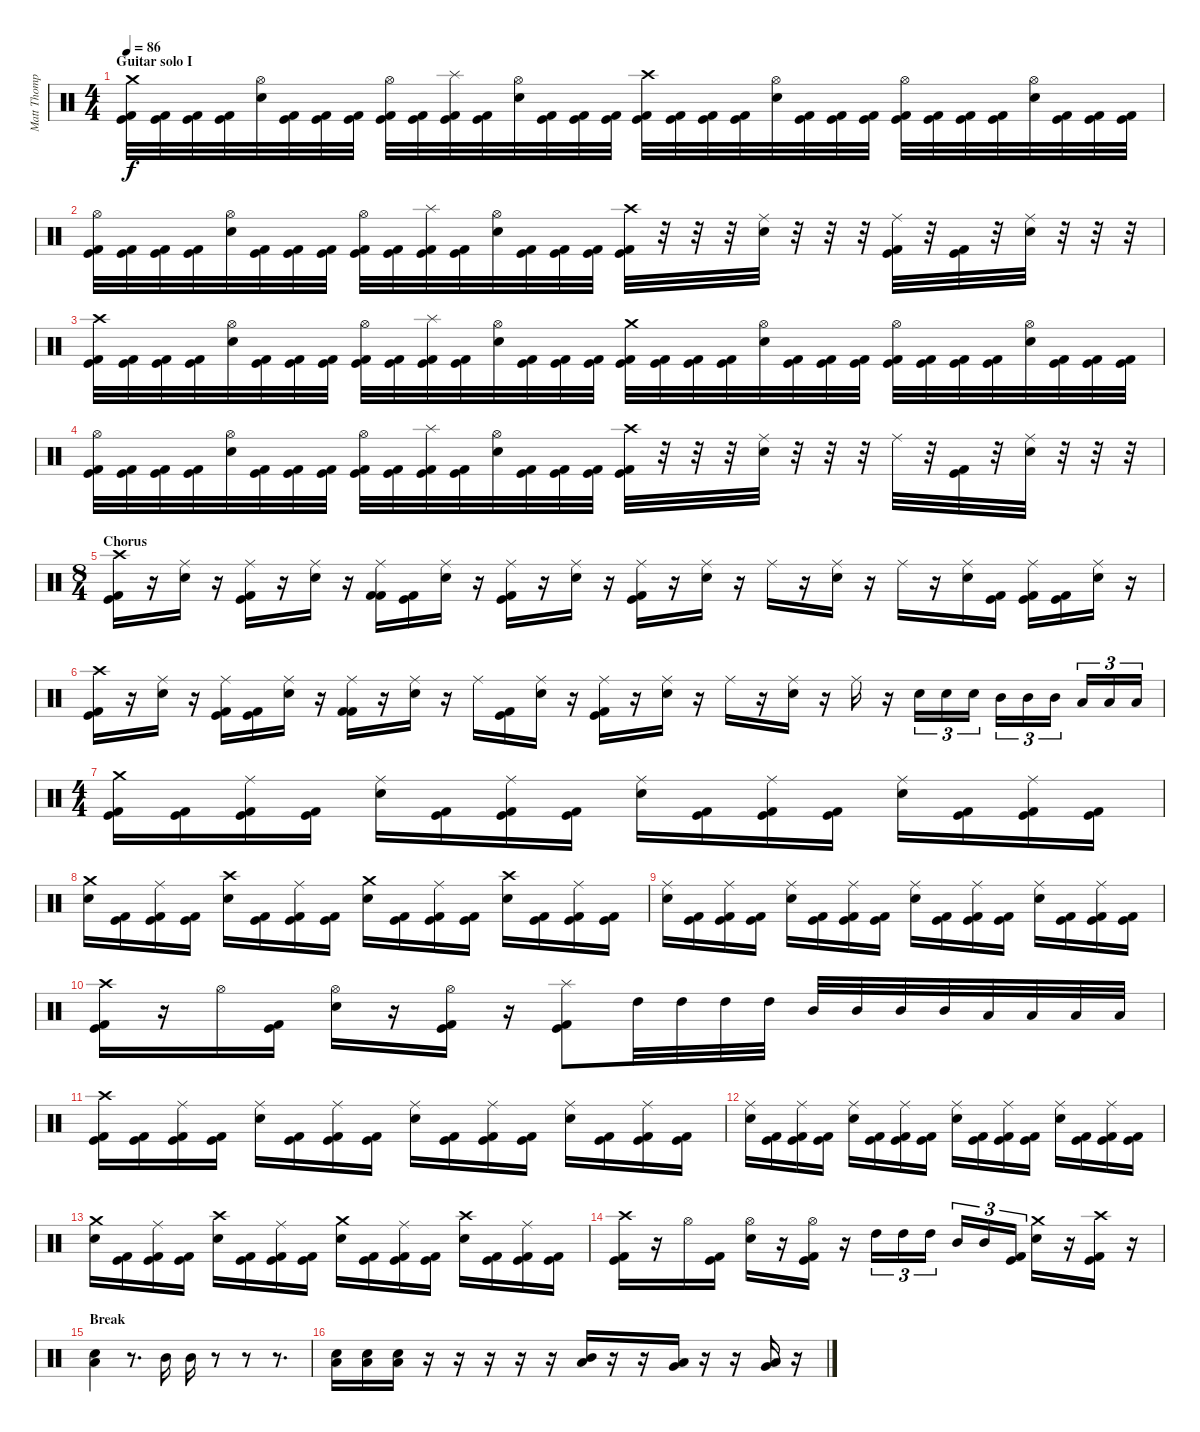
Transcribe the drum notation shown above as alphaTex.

\track ("Matt Thompson" "Matt Thomp") {instrument percussion}
\staff {score}
\articulation defaults
\ts (4 4)
\section ("" "Guitar solo I")
\tempo 86
\clef neutral
\ks c
("Crash medium (hit)" "Kick (hit)" "Kick (hit) 2").32{dy f} ("Kick (hit)" "Kick (hit) 2").32 ("Kick (hit)" "Kick (hit) 2").32 ("Kick (hit)" "Kick (hit) 2").32 ("Hi-Hat (open)" "Snare (hit) 2").32 ("Kick (hit)" "Kick (hit) 2").32 ("Kick (hit)" "Kick (hit) 2").32 ("Kick (hit)" "Kick (hit) 2").32 ("Hi-Hat (open)" "Kick (hit)" "Kick (hit) 2").32 ("Kick (hit)" "Kick (hit) 2").32 ("Splash (hit)" "Kick (hit)" "Kick (hit) 2").32 ("Kick (hit)" "Kick (hit) 2").32 ("Hi-Hat (open)" "Snare (hit) 2").32 ("Kick (hit)" "Kick (hit) 2").32 ("Kick (hit)" "Kick (hit) 2").32 ("Kick (hit)" "Kick (hit) 2").32 ("Crash high (hit)" "Kick (hit)" "Kick (hit) 2").32 ("Kick (hit)" "Kick (hit) 2").32 ("Kick (hit)" "Kick (hit) 2").32 ("Kick (hit)" "Kick (hit) 2").32 ("Hi-Hat (open)" "Snare (hit) 2").32 ("Kick (hit)" "Kick (hit) 2").32 ("Kick (hit)" "Kick (hit) 2").32 ("Kick (hit)" "Kick (hit) 2").32 ("Hi-Hat (open)" "Kick (hit)" "Kick (hit) 2").32 ("Kick (hit)" "Kick (hit) 2").32 ("Kick (hit)" "Kick (hit) 2").32 ("Kick (hit)" "Kick (hit) 2").32 ("Hi-Hat (open)" "Snare (hit) 2").32 ("Kick (hit)" "Kick (hit) 2").32 ("Kick (hit)" "Kick (hit) 2").32 ("Kick (hit)" "Kick (hit) 2").32 |
("Hi-Hat (open)" "Kick (hit)" "Kick (hit) 2").32 ("Kick (hit)" "Kick (hit) 2").32 ("Kick (hit)" "Kick (hit) 2").32 ("Kick (hit)" "Kick (hit) 2").32 ("Hi-Hat (open)" "Snare (hit) 2").32 ("Kick (hit)" "Kick (hit) 2").32 ("Kick (hit)" "Kick (hit) 2").32 ("Kick (hit)" "Kick (hit) 2").32 ("Hi-Hat (open)" "Kick (hit)" "Kick (hit) 2").32 ("Kick (hit)" "Kick (hit) 2").32 ("Splash (hit)" "Kick (hit)" "Kick (hit) 2").32 ("Kick (hit)" "Kick (hit) 2").32 ("Hi-Hat (open)" "Snare (hit) 2").32 ("Kick (hit)" "Kick (hit) 2").32 ("Kick (hit)" "Kick (hit) 2").32 ("Kick (hit)" "Kick (hit) 2").32 ("Crash high (hit)" "Kick (hit)" "Kick (hit) 2").32 r.32 r.32 r.32 ("Ride (middle)" "Snare (hit) 2").32 r.32 r.32 r.32 ("Ride (middle)" "Kick (hit)" "Kick (hit) 2").32 r.32 ("Kick (hit)" "Kick (hit) 2").32 r.32 ("Ride (middle)" "Snare (hit) 2").32 r.32 r.32 r.32 |
("Crash high (hit)" "Kick (hit)" "Kick (hit) 2").32 ("Kick (hit)" "Kick (hit) 2").32 ("Kick (hit)" "Kick (hit) 2").32 ("Kick (hit)" "Kick (hit) 2").32 ("Hi-Hat (open)" "Snare (hit) 2").32 ("Kick (hit)" "Kick (hit) 2").32 ("Kick (hit)" "Kick (hit) 2").32 ("Kick (hit)" "Kick (hit) 2").32 ("Hi-Hat (open)" "Kick (hit)" "Kick (hit) 2").32 ("Kick (hit)" "Kick (hit) 2").32 ("Splash (hit)" "Kick (hit)" "Kick (hit) 2").32 ("Kick (hit)" "Kick (hit) 2").32 ("Hi-Hat (open)" "Snare (hit) 2").32 ("Kick (hit)" "Kick (hit) 2").32 ("Kick (hit)" "Kick (hit) 2").32 ("Kick (hit)" "Kick (hit) 2").32 ("Crash medium (hit)" "Kick (hit)" "Kick (hit) 2").32 ("Kick (hit)" "Kick (hit) 2").32 ("Kick (hit)" "Kick (hit) 2").32 ("Kick (hit)" "Kick (hit) 2").32 ("Hi-Hat (open)" "Snare (hit) 2").32 ("Kick (hit)" "Kick (hit) 2").32 ("Kick (hit)" "Kick (hit) 2").32 ("Kick (hit)" "Kick (hit) 2").32 ("Hi-Hat (open)" "Kick (hit)" "Kick (hit) 2").32 ("Kick (hit)" "Kick (hit) 2").32 ("Kick (hit)" "Kick (hit) 2").32 ("Kick (hit)" "Kick (hit) 2").32 ("Hi-Hat (open)" "Snare (hit) 2").32 ("Kick (hit)" "Kick (hit) 2").32 ("Kick (hit)" "Kick (hit) 2").32 ("Kick (hit)" "Kick (hit) 2").32 |
("Hi-Hat (open)" "Kick (hit)" "Kick (hit) 2").32 ("Kick (hit)" "Kick (hit) 2").32 ("Kick (hit)" "Kick (hit) 2").32 ("Kick (hit)" "Kick (hit) 2").32 ("Hi-Hat (open)" "Snare (hit) 2").32 ("Kick (hit)" "Kick (hit) 2").32 ("Kick (hit)" "Kick (hit) 2").32 ("Kick (hit)" "Kick (hit) 2").32 ("Hi-Hat (open)" "Kick (hit)" "Kick (hit) 2").32 ("Kick (hit)" "Kick (hit) 2").32 ("Splash (hit)" "Kick (hit)" "Kick (hit) 2").32 ("Kick (hit)" "Kick (hit) 2").32 ("Hi-Hat (open)" "Snare (hit) 2").32 ("Kick (hit)" "Kick (hit) 2").32 ("Kick (hit)" "Kick (hit) 2").32 ("Kick (hit)" "Kick (hit) 2").32 ("Crash high (hit)" "Kick (hit)" "Kick (hit) 2").32 r.32 r.32 r.32 ("Ride (middle)" "Snare (hit) 2").32 r.32 r.32 r.32 "Ride (middle)".32 r.32 ("Kick (hit)" "Kick (hit) 2").32 r.32 ("Ride (middle)" "Snare (hit) 2").32 r.32 r.32 r.32 |
\ts (8 4)
\section ("" "Chorus")
("Crash high (hit)" "Kick (hit)" "Kick (hit) 2").16 r.16 ("Ride (middle)" "Snare (hit) 2").16 r.16 ("Ride (middle)" "Kick (hit)" "Kick (hit) 2").16 r.16 ("Ride (middle)" "Snare (hit) 2").16 r.16 ("Ride (middle)" "Kick (hit) 2" "Kick (hit) 2").16 ("Kick (hit)" "Kick (hit) 2").16 ("Ride (middle)" "Snare (hit) 2").16 r.16 ("Ride (middle)" "Kick (hit)" "Kick (hit) 2").16 r.16 ("Ride (middle)" "Snare (hit) 2").16 r.16 ("Ride (middle)" "Kick (hit)" "Kick (hit) 2").16 r.16 ("Ride (middle)" "Snare (hit) 2").16 r.16 "Ride (middle)".16 r.16 ("Ride (middle)" "Snare (hit) 2").16 r.16 "Ride (middle)".16 r.16 ("Ride (middle)" "Snare (hit) 2").16 ("Kick (hit)" "Kick (hit) 2").16 ("Ride (middle)" "Kick (hit)" "Kick (hit) 2").16 ("Kick (hit)" "Kick (hit) 2").16 ("Ride (middle)" "Snare (hit) 2").16 r.16 |
("Crash high (hit)" "Kick (hit)" "Kick (hit) 2").16 r.16 ("Ride (middle)" "Snare (hit) 2").16 r.16 ("Ride (middle)" "Kick (hit)" "Kick (hit) 2").16 ("Kick (hit)" "Kick (hit) 2").16 ("Ride (middle)" "Snare (hit) 2").16 r.16 ("Ride (middle)" "Kick (hit) 2" "Kick (hit) 2").16 r.16 ("Ride (middle)" "Snare (hit) 2").16 r.16 "Ride (middle)".16 ("Kick (hit)" "Kick (hit) 2").16 ("Ride (middle)" "Snare (hit) 2").16 r.16 ("Ride (middle)" "Kick (hit)" "Kick (hit) 2").16 r.16 ("Ride (middle)" "Snare (hit) 2").16 r.16 "Ride (middle)".16 r.16 ("Ride (middle)" "Snare (hit) 2").16 r.16 "Ride (middle)".16 r.16 "Snare (hit) 2".16{tu (3 2)} "Snare (hit) 2".16{tu (3 2)} "Snare (hit) 2".16{tu (3 2)} "Mid Tom (hit)".16{tu (3 2)} "Mid Tom (hit)".16{tu (3 2)} "Mid Tom (hit)".16{tu (3 2)} "Low Tom (hit)".16{tu (3 2)} "Low Tom (hit)".16{tu (3 2)} "Low Tom (hit)".16{tu (3 2)} |
\ts (4 4)
("Crash medium (hit)" "Kick (hit)" "Kick (hit) 2").16 ("Kick (hit)" "Kick (hit) 2").16 ("Ride (middle)" "Kick (hit)" "Kick (hit) 2").16 ("Kick (hit)" "Kick (hit) 2").16 ("Ride (middle)" "Snare (hit) 2").16 ("Kick (hit)" "Kick (hit) 2").16 ("Ride (middle)" "Kick (hit)" "Kick (hit) 2").16 ("Kick (hit)" "Kick (hit) 2").16 ("Ride (middle)" "Snare (hit) 2").16 ("Kick (hit)" "Kick (hit) 2").16 ("Ride (middle)" "Kick (hit)" "Kick (hit) 2").16 ("Kick (hit)" "Kick (hit) 2").16 ("Ride (middle)" "Snare (hit) 2").16 ("Kick (hit)" "Kick (hit) 2").16 ("Ride (middle)" "Kick (hit)" "Kick (hit) 2").16 ("Kick (hit)" "Kick (hit) 2").16 |
("Crash medium (hit)" "Snare (hit) 2").16 ("Kick (hit)" "Kick (hit) 2").16 ("Ride (middle)" "Kick (hit)" "Kick (hit) 2").16 ("Kick (hit)" "Kick (hit) 2").16 ("Crash high (hit)" "Snare (hit) 2").16 ("Kick (hit)" "Kick (hit) 2").16 ("Ride (middle)" "Kick (hit)" "Kick (hit) 2").16 ("Kick (hit)" "Kick (hit) 2").16 ("Crash medium (hit)" "Snare (hit) 2").16 ("Kick (hit)" "Kick (hit) 2").16 ("Ride (middle)" "Kick (hit)" "Kick (hit) 2").16 ("Kick (hit)" "Kick (hit) 2").16 ("Crash high (hit)" "Snare (hit) 2").16 ("Kick (hit)" "Kick (hit) 2").16 ("Ride (middle)" "Kick (hit)" "Kick (hit) 2").16 ("Kick (hit)" "Kick (hit) 2").16 |
("Ride (middle)" "Snare (hit) 2").16 ("Kick (hit)" "Kick (hit) 2").16 ("Ride (middle)" "Kick (hit)" "Kick (hit) 2").16 ("Kick (hit)" "Kick (hit) 2").16 ("Ride (middle)" "Snare (hit) 2").16 ("Kick (hit)" "Kick (hit) 2").16 ("Ride (middle)" "Kick (hit)" "Kick (hit) 2").16 ("Kick (hit)" "Kick (hit) 2").16 ("Ride (middle)" "Snare (hit) 2").16 ("Kick (hit)" "Kick (hit) 2").16 ("Ride (middle)" "Kick (hit)" "Kick (hit) 2").16 ("Kick (hit)" "Kick (hit) 2").16 ("Ride (middle)" "Snare (hit) 2").16 ("Kick (hit)" "Kick (hit) 2").16 ("Ride (middle)" "Kick (hit)" "Kick (hit) 2").16 ("Kick (hit)" "Kick (hit) 2").16 |
("Crash high (hit)" "Kick (hit)" "Kick (hit) 2").16 r.16 "Hi-Hat (open)".16 ("Kick (hit)" "Kick (hit) 2").16 ("Hi-Hat (open)" "Snare (hit) 2").16 r.16 ("Hi-Hat (open)" "Kick (hit)" "Kick (hit) 2").16 r.16 ("Splash (hit)" "Kick (hit)" "Kick (hit) 2").8 "High Tom (hit)".32 "High Tom (hit)".32 "High Tom (hit)".32 "High Tom (hit)".32 "Mid Tom (hit)".32 "Mid Tom (hit)".32 "Mid Tom (hit)".32 "Mid Tom (hit)".32 "Low Tom (hit)".32 "Low Tom (hit)".32 "Low Tom (hit)".32 "Low Tom (hit)".32 |
\section ("" "")
("Crash high (hit)" "Kick (hit)" "Kick (hit) 2").16 ("Kick (hit)" "Kick (hit) 2").16 ("Ride (middle)" "Kick (hit)" "Kick (hit) 2").16 ("Kick (hit)" "Kick (hit) 2").16 ("Ride (middle)" "Snare (hit) 2").16 ("Kick (hit)" "Kick (hit) 2").16 ("Ride (middle)" "Kick (hit)" "Kick (hit) 2").16 ("Kick (hit)" "Kick (hit) 2").16 ("Ride (middle)" "Snare (hit) 2").16 ("Kick (hit)" "Kick (hit) 2").16 ("Ride (middle)" "Kick (hit)" "Kick (hit) 2").16 ("Kick (hit)" "Kick (hit) 2").16 ("Ride (middle)" "Snare (hit) 2").16 ("Kick (hit)" "Kick (hit) 2").16 ("Ride (middle)" "Kick (hit)" "Kick (hit) 2").16 ("Kick (hit)" "Kick (hit) 2").16 |
("Ride (middle)" "Snare (hit) 2").16 ("Kick (hit)" "Kick (hit) 2").16 ("Ride (middle)" "Kick (hit)" "Kick (hit) 2").16 ("Kick (hit)" "Kick (hit) 2").16 ("Ride (middle)" "Snare (hit) 2").16 ("Kick (hit)" "Kick (hit) 2").16 ("Ride (middle)" "Kick (hit)" "Kick (hit) 2").16 ("Kick (hit)" "Kick (hit) 2").16 ("Ride (middle)" "Snare (hit) 2").16 ("Kick (hit)" "Kick (hit) 2").16 ("Ride (middle)" "Kick (hit)" "Kick (hit) 2").16 ("Kick (hit)" "Kick (hit) 2").16 ("Ride (middle)" "Snare (hit) 2").16 ("Kick (hit)" "Kick (hit) 2").16 ("Ride (middle)" "Kick (hit)" "Kick (hit) 2").16 ("Kick (hit)" "Kick (hit) 2").16 |
("Crash medium (hit)" "Snare (hit) 2").16 ("Kick (hit)" "Kick (hit) 2").16 ("Ride (middle)" "Kick (hit)" "Kick (hit) 2").16 ("Kick (hit)" "Kick (hit) 2").16 ("Crash high (hit)" "Snare (hit) 2").16 ("Kick (hit)" "Kick (hit) 2").16 ("Ride (middle)" "Kick (hit)" "Kick (hit) 2").16 ("Kick (hit)" "Kick (hit) 2").16 ("Crash medium (hit)" "Snare (hit) 2").16 ("Kick (hit)" "Kick (hit) 2").16 ("Ride (middle)" "Kick (hit)" "Kick (hit) 2").16 ("Kick (hit)" "Kick (hit) 2").16 ("Crash high (hit)" "Snare (hit) 2").16 ("Kick (hit)" "Kick (hit) 2").16 ("Ride (middle)" "Kick (hit)" "Kick (hit) 2").16 ("Kick (hit)" "Kick (hit) 2").16 |
("Crash high (hit)" "Kick (hit)" "Kick (hit) 2").16 r.16 "Hi-Hat (open)".16 ("Kick (hit)" "Kick (hit) 2").16 ("Hi-Hat (open)" "Snare (hit) 2").16 r.16 ("Hi-Hat (open)" "Kick (hit)" "Kick (hit) 2").16 r.16 "High Tom (hit)".16{tu (3 2)} "High Tom (hit)".16{tu (3 2)} "High Tom (hit)".16{tu (3 2)} "Mid Tom (hit)".16{tu (3 2)} "Mid Tom (hit)".16{tu (3 2)} ("Kick (hit)" "Kick (hit) 2").16{tu (3 2)} ("Crash medium (hit)" "Snare (hit) 2").16 r.16 ("Crash high (hit)" "Kick (hit)" "Kick (hit) 2").16 r.16 |
\section ("" "Break")
("Low Tom (hit)" "Snare (hit) 2").4 r.8{d} "Mid Tom (hit)".16 "Mid Tom (hit)".16 r.8 r.8 r.8{d} |
("Low Tom (hit)" "Snare (hit) 2").16 ("Low Tom (hit)" "Snare (hit) 2").16 ("Low Tom (hit)" "Snare (hit) 2").16 r.16 r.16 r.16 r.16 r.16 ("Mid Tom (hit)" "Low Tom (hit)").16 r.16 r.16 ("Low Tom (hit)" "Very Low Tom (hit)").16 r.16 r.16 ("Very Low Tom (hit)" "Low Floor Tom (hit)").16 r.16
